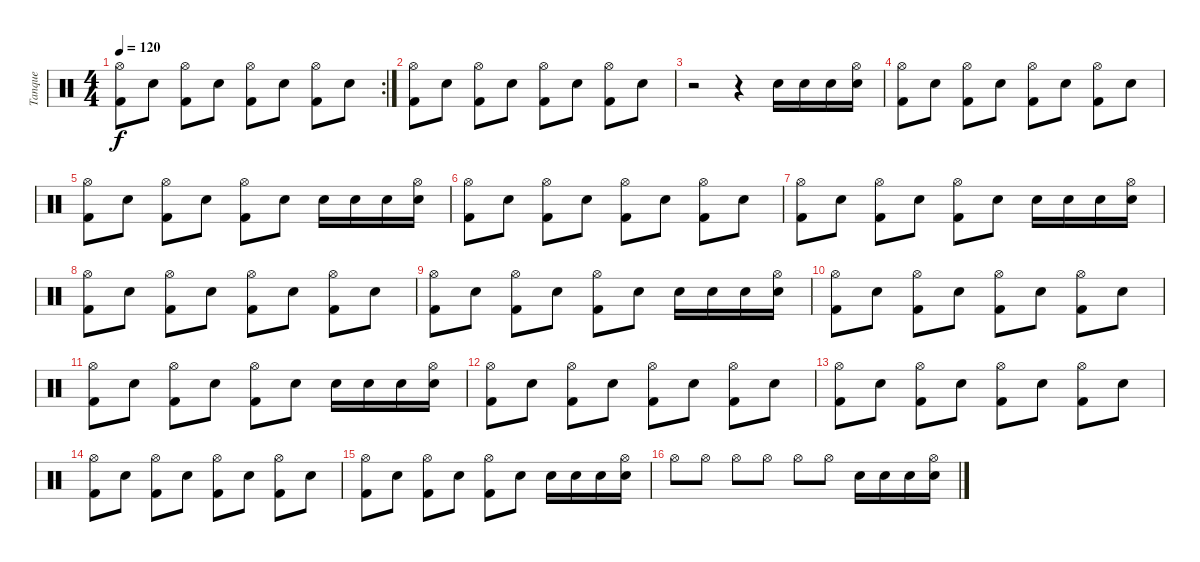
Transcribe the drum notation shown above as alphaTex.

\track ("Tanque" "Tanque") {instrument percussion}
\staff {score}
\articulation defaults
\rc 2
\ts (4 4)
\tempo 120
\clef neutral
\ks c
("Kick (hit) 2" "Hi-Hat (open)").8{dy f} "Electric Snare (hit)".8 ("Kick (hit) 2" "Hi-Hat (open)").8 "Electric Snare (hit)".8 ("Kick (hit) 2" "Hi-Hat (open)").8 "Electric Snare (hit)".8 ("Kick (hit) 2" "Hi-Hat (open)").8 "Electric Snare (hit)".8 |
("Kick (hit) 2" "Hi-Hat (open)").8 "Electric Snare (hit)".8 ("Kick (hit) 2" "Hi-Hat (open)").8 "Electric Snare (hit)".8 ("Kick (hit) 2" "Hi-Hat (open)").8 "Electric Snare (hit)".8 ("Kick (hit) 2" "Hi-Hat (open)").8 "Electric Snare (hit)".8 |
r.2 r.4 "Electric Snare (hit)".16 "Electric Snare (hit)".16 "Electric Snare (hit)".16 ("Electric Snare (hit)" "Hi-Hat (open)").16 |
("Kick (hit) 2" "Hi-Hat (open)").8 "Electric Snare (hit)".8 ("Kick (hit) 2" "Hi-Hat (open)").8 "Electric Snare (hit)".8 ("Kick (hit) 2" "Hi-Hat (open)").8 "Electric Snare (hit)".8 ("Kick (hit) 2" "Hi-Hat (open)").8 "Electric Snare (hit)".8 |
("Kick (hit) 2" "Hi-Hat (open)").8 "Electric Snare (hit)".8 ("Kick (hit) 2" "Hi-Hat (open)").8 "Electric Snare (hit)".8 ("Kick (hit) 2" "Hi-Hat (open)").8 "Electric Snare (hit)".8 "Electric Snare (hit)".16 "Electric Snare (hit)".16 "Electric Snare (hit)".16 ("Electric Snare (hit)" "Hi-Hat (open)").16 |
("Kick (hit) 2" "Hi-Hat (open)").8 "Electric Snare (hit)".8 ("Kick (hit) 2" "Hi-Hat (open)").8 "Electric Snare (hit)".8 ("Kick (hit) 2" "Hi-Hat (open)").8 "Electric Snare (hit)".8 ("Kick (hit) 2" "Hi-Hat (open)").8 "Electric Snare (hit)".8 |
("Kick (hit) 2" "Hi-Hat (open)").8 "Electric Snare (hit)".8 ("Kick (hit) 2" "Hi-Hat (open)").8 "Electric Snare (hit)".8 ("Kick (hit) 2" "Hi-Hat (open)").8 "Electric Snare (hit)".8 "Electric Snare (hit)".16 "Electric Snare (hit)".16 "Electric Snare (hit)".16 ("Electric Snare (hit)" "Hi-Hat (open)").16 |
("Kick (hit) 2" "Hi-Hat (open)").8 "Electric Snare (hit)".8 ("Kick (hit) 2" "Hi-Hat (open)").8 "Electric Snare (hit)".8 ("Kick (hit) 2" "Hi-Hat (open)").8 "Electric Snare (hit)".8 ("Kick (hit) 2" "Hi-Hat (open)").8 "Electric Snare (hit)".8 |
("Kick (hit) 2" "Hi-Hat (open)").8 "Electric Snare (hit)".8 ("Kick (hit) 2" "Hi-Hat (open)").8 "Electric Snare (hit)".8 ("Kick (hit) 2" "Hi-Hat (open)").8 "Electric Snare (hit)".8 "Electric Snare (hit)".16 "Electric Snare (hit)".16 "Electric Snare (hit)".16 ("Electric Snare (hit)" "Hi-Hat (open)").16 |
("Kick (hit) 2" "Hi-Hat (open)").8 "Electric Snare (hit)".8 ("Kick (hit) 2" "Hi-Hat (open)").8 "Electric Snare (hit)".8 ("Kick (hit) 2" "Hi-Hat (open)").8 "Electric Snare (hit)".8 ("Kick (hit) 2" "Hi-Hat (open)").8 "Electric Snare (hit)".8 |
("Kick (hit) 2" "Hi-Hat (open)").8 "Electric Snare (hit)".8 ("Kick (hit) 2" "Hi-Hat (open)").8 "Electric Snare (hit)".8 ("Kick (hit) 2" "Hi-Hat (open)").8 "Electric Snare (hit)".8 "Electric Snare (hit)".16 "Electric Snare (hit)".16 "Electric Snare (hit)".16 ("Electric Snare (hit)" "Hi-Hat (open)").16 |
("Kick (hit) 2" "Hi-Hat (open)").8 "Electric Snare (hit)".8 ("Kick (hit) 2" "Hi-Hat (open)").8 "Electric Snare (hit)".8 ("Kick (hit) 2" "Hi-Hat (open)").8 "Electric Snare (hit)".8 ("Kick (hit) 2" "Hi-Hat (open)").8 "Electric Snare (hit)".8 |
("Kick (hit) 2" "Hi-Hat (open)").8 "Electric Snare (hit)".8 ("Kick (hit) 2" "Hi-Hat (open)").8 "Electric Snare (hit)".8 ("Kick (hit) 2" "Hi-Hat (open)").8 "Electric Snare (hit)".8 ("Kick (hit) 2" "Hi-Hat (open)").8 "Electric Snare (hit)".8 |
("Kick (hit) 2" "Hi-Hat (open)").8 "Electric Snare (hit)".8 ("Kick (hit) 2" "Hi-Hat (open)").8 "Electric Snare (hit)".8 ("Kick (hit) 2" "Hi-Hat (open)").8 "Electric Snare (hit)".8 ("Kick (hit) 2" "Hi-Hat (open)").8 "Electric Snare (hit)".8 |
("Kick (hit) 2" "Hi-Hat (open)").8 "Electric Snare (hit)".8 ("Kick (hit) 2" "Hi-Hat (open)").8 "Electric Snare (hit)".8 ("Kick (hit) 2" "Hi-Hat (open)").8 "Electric Snare (hit)".8 "Electric Snare (hit)".16 "Electric Snare (hit)".16 "Electric Snare (hit)".16 ("Electric Snare (hit)" "Hi-Hat (open)").16 |
"Hi-Hat (open)".8 "Hi-Hat (open)".8 "Hi-Hat (open)".8 "Hi-Hat (open)".8 "Hi-Hat (open)".8 "Hi-Hat (open)".8 "Electric Snare (hit)".16 "Electric Snare (hit)".16 "Electric Snare (hit)".16 ("Electric Snare (hit)" "Hi-Hat (open)").16
